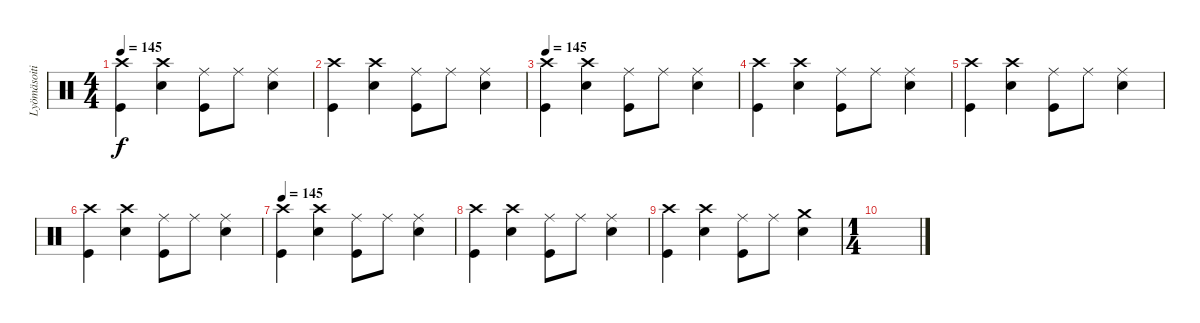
\track ("Lyömäsoitin" "Lyömäsoiti") {instrument percussion}
\staff {score}
\articulation defaults
\ts (4 4)
\tempo 145
\clef neutral
\ks c
("Crash high (hit)" "Kick (hit)").4{dy f} ("Crash high (hit)" "Snare (hit) 2").4 ("Ride (middle)" "Kick (hit)").8 "Ride (middle)".8 ("Ride (middle)" "Snare (hit) 2").4 |
("Crash high (hit)" "Kick (hit)").4 ("Crash high (hit)" "Snare (hit) 2").4 ("Ride (middle)" "Kick (hit)").8 "Ride (middle)".8 ("Ride (middle)" "Snare (hit) 2").4 |
\tempo 145
("Crash high (hit)" "Kick (hit)").4 ("Crash high (hit)" "Snare (hit) 2").4 ("Ride (middle)" "Kick (hit)").8 "Ride (middle)".8 ("Ride (middle)" "Snare (hit) 2").4 |
("Crash high (hit)" "Kick (hit)").4 ("Crash high (hit)" "Snare (hit) 2").4 ("Ride (middle)" "Kick (hit)").8 "Ride (middle)".8 ("Ride (middle)" "Snare (hit) 2").4 |
("Crash high (hit)" "Kick (hit)").4 ("Crash high (hit)" "Snare (hit) 2").4 ("Ride (middle)" "Kick (hit)").8 "Ride (middle)".8 ("Ride (middle)" "Snare (hit) 2").4 |
("Crash high (hit)" "Kick (hit)").4 ("Crash high (hit)" "Snare (hit) 2").4 ("Ride (middle)" "Kick (hit)").8 "Ride (middle)".8 ("Ride (middle)" "Snare (hit) 2").4 |
\tempo 145
("Crash high (hit)" "Kick (hit)").4 ("Crash high (hit)" "Snare (hit) 2").4 ("Ride (middle)" "Kick (hit)").8 "Ride (middle)".8 ("Ride (middle)" "Snare (hit) 2").4 |
("Crash high (hit)" "Kick (hit)").4 ("Crash high (hit)" "Snare (hit) 2").4 ("Ride (middle)" "Kick (hit)").8 "Ride (middle)".8 ("Ride (middle)" "Snare (hit) 2").4 |
("Crash high (hit)" "Kick (hit)").4 ("Crash high (hit)" "Snare (hit) 2").4 ("Ride (middle)" "Kick (hit)").8 "Ride (middle)".8 ("Crash medium (hit)" "Snare (hit) 2").4 |
\ts (1 4)
